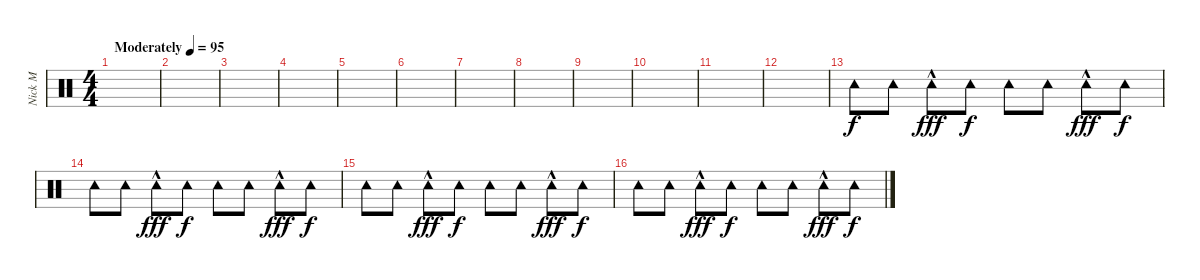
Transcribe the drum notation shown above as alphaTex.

\track ("Nick M" "Nick M") {instrument percussion}
\staff {score}
\articulation defaults
\ts (4 4)
\tempo (95 "Moderately")
\clef neutral
\ks c
|
|
|
|
|
|
|
|
|
|
|
|
"Tambourine (hit)".8 "Tambourine (hit)".8 "Tambourine (hit)"{hac}.8{dy fff} "Tambourine (hit)".8{dy f} "Tambourine (hit)".8 "Tambourine (hit)".8 "Tambourine (hit)"{hac}.8{dy fff} "Tambourine (hit)".8{dy f} |
"Tambourine (hit)".8 "Tambourine (hit)".8 "Tambourine (hit)"{hac}.8{dy fff} "Tambourine (hit)".8{dy f} "Tambourine (hit)".8 "Tambourine (hit)".8 "Tambourine (hit)"{hac}.8{dy fff} "Tambourine (hit)".8{dy f} |
"Tambourine (hit)".8 "Tambourine (hit)".8 "Tambourine (hit)"{hac}.8{dy fff} "Tambourine (hit)".8{dy f} "Tambourine (hit)".8 "Tambourine (hit)".8 "Tambourine (hit)"{hac}.8{dy fff} "Tambourine (hit)".8{dy f} |
"Tambourine (hit)".8 "Tambourine (hit)".8 "Tambourine (hit)"{hac}.8{dy fff} "Tambourine (hit)".8{dy f} "Tambourine (hit)".8 "Tambourine (hit)".8 "Tambourine (hit)"{hac}.8{dy fff} "Tambourine (hit)".8{dy f}
